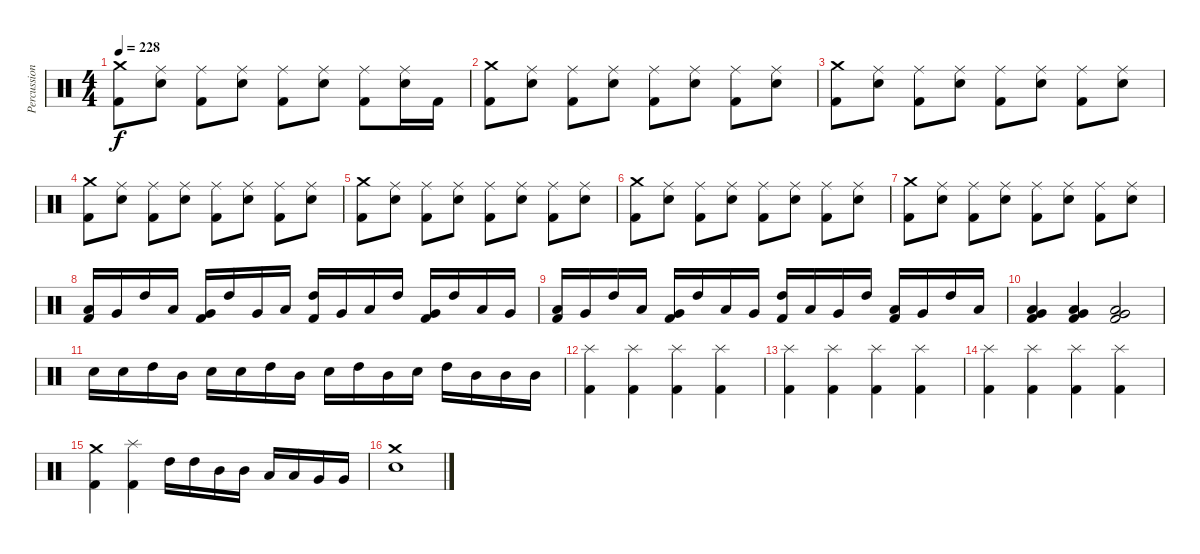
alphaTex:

\track ("Percussion" "Percussion") {instrument percussion}
\staff {score}
\articulation defaults
\ts (4 4)
\tempo 228
\clef neutral
\ks c
("Crash medium (hit)" "Kick (hit) 2").8{dy f} ("Ride (middle)" "Electric Snare (hit)").8 ("Ride (middle)" "Kick (hit) 2").8 ("Ride (middle)" "Electric Snare (hit)").8 ("Ride (middle)" "Kick (hit) 2").8 ("Ride (middle)" "Electric Snare (hit)").8 ("Ride (middle)" "Kick (hit) 2").8 ("Ride (middle)" "Electric Snare (hit)").16 "Kick (hit) 2".16 |
("Crash medium (hit)" "Kick (hit) 2").8 ("Ride (middle)" "Electric Snare (hit)").8 ("Ride (middle)" "Kick (hit) 2").8 ("Ride (middle)" "Electric Snare (hit)").8 ("Ride (middle)" "Kick (hit) 2").8 ("Ride (middle)" "Electric Snare (hit)").8 ("Ride (middle)" "Kick (hit) 2").8 ("Ride (middle)" "Electric Snare (hit)").8 |
("Crash medium (hit)" "Kick (hit) 2").8 ("Ride (middle)" "Electric Snare (hit)").8 ("Ride (middle)" "Kick (hit) 2").8 ("Ride (middle)" "Electric Snare (hit)").8 ("Ride (middle)" "Kick (hit) 2").8 ("Ride (middle)" "Electric Snare (hit)").8 ("Ride (middle)" "Kick (hit) 2").8 ("Ride (middle)" "Electric Snare (hit)").8 |
("Crash medium (hit)" "Kick (hit) 2").8 ("Ride (middle)" "Electric Snare (hit)").8 ("Ride (middle)" "Kick (hit) 2").8 ("Ride (middle)" "Electric Snare (hit)").8 ("Ride (middle)" "Kick (hit) 2").8 ("Ride (middle)" "Electric Snare (hit)").8 ("Ride (middle)" "Kick (hit) 2").8 ("Ride (middle)" "Electric Snare (hit)").8 |
("Crash medium (hit)" "Kick (hit) 2").8 ("Ride (middle)" "Electric Snare (hit)").8 ("Ride (middle)" "Kick (hit) 2").8 ("Ride (middle)" "Electric Snare (hit)").8 ("Ride (middle)" "Kick (hit) 2").8 ("Ride (middle)" "Electric Snare (hit)").8 ("Ride (middle)" "Kick (hit) 2").8 ("Ride (middle)" "Electric Snare (hit)").8 |
("Crash medium (hit)" "Kick (hit) 2").8 ("Ride (middle)" "Electric Snare (hit)").8 ("Ride (middle)" "Kick (hit) 2").8 ("Ride (middle)" "Electric Snare (hit)").8 ("Ride (middle)" "Kick (hit) 2").8 ("Ride (middle)" "Electric Snare (hit)").8 ("Ride (middle)" "Kick (hit) 2").8 ("Ride (middle)" "Electric Snare (hit)").8 |
("Crash medium (hit)" "Kick (hit) 2").8 ("Ride (middle)" "Electric Snare (hit)").8 ("Ride (middle)" "Kick (hit) 2").8 ("Ride (middle)" "Electric Snare (hit)").8 ("Ride (middle)" "Kick (hit) 2").8 ("Ride (middle)" "Electric Snare (hit)").8 ("Ride (middle)" "Kick (hit) 2").8 ("Ride (middle)" "Electric Snare (hit)").8 |
("Low Tom (hit)" "Kick (hit) 2").16 "Very Low Tom (hit)".16 "High Tom (hit)".16 "Low Tom (hit)".16 ("Very Low Tom (hit)" "Kick (hit) 2").16 "High Tom (hit)".16 "Very Low Tom (hit)".16 "Low Tom (hit)".16 ("High Tom (hit)" "Kick (hit) 2").16 "Very Low Tom (hit)".16 "Low Tom (hit)".16 "High Tom (hit)".16 ("Very Low Tom (hit)" "Kick (hit) 2").16 "High Tom (hit)".16 "Low Tom (hit)".16 "Very Low Tom (hit)".16 |
("Low Tom (hit)" "Kick (hit) 2").16 "Very Low Tom (hit)".16 "High Tom (hit)".16 "Low Tom (hit)".16 ("Very Low Tom (hit)" "Kick (hit) 2").16 "High Tom (hit)".16 "Low Tom (hit)".16 "Very Low Tom (hit)".16 ("High Tom (hit)" "Kick (hit) 2").16 "Low Tom (hit)".16 "Very Low Tom (hit)".16 "High Tom (hit)".16 ("Low Tom (hit)" "Kick (hit) 2").16 "Very Low Tom (hit)".16 "High Tom (hit)".16 "Low Tom (hit)".16 |
("Kick (hit) 2" "Low Tom (hit)" "Very Low Tom (hit)").4 ("Kick (hit) 2" "Low Tom (hit)" "Very Low Tom (hit)").4 ("Kick (hit) 2" "Low Tom (hit)" "Very Low Tom (hit)").2 |
"Electric Snare (hit)".16 "Electric Snare (hit)".16 "High Tom (hit)".16 "Mid Tom (hit)".16 "Electric Snare (hit)".16 "Electric Snare (hit)".16 "High Tom (hit)".16 "Mid Tom (hit)".16 "Electric Snare (hit)".16 "High Tom (hit)".16 "Mid Tom (hit)".16 "Electric Snare (hit)".16 "High Tom (hit)".16 "Mid Tom (hit)".16 "Mid Tom (hit)".16 "Mid Tom (hit)".16 |
("Splash (hit)" "Kick (hit) 2").4 ("Splash (hit)" "Kick (hit) 2").4 ("Splash (hit)" "Kick (hit) 2").4 ("Splash (hit)" "Kick (hit) 2").4 |
("Splash (hit)" "Kick (hit) 2").4 ("Splash (hit)" "Kick (hit) 2").4 ("Splash (hit)" "Kick (hit) 2").4 ("Splash (hit)" "Kick (hit) 2").4 |
("Splash (hit)" "Kick (hit) 2").4 ("Splash (hit)" "Kick (hit) 2").4 ("Splash (hit)" "Kick (hit) 2").4 ("Splash (hit)" "Kick (hit) 2").4 |
("Crash medium (hit)" "Kick (hit) 2").4 ("Splash (hit)" "Kick (hit) 2").4 "High Tom (hit)".16 "High Tom (hit)".16 "Mid Tom (hit)".16 "Mid Tom (hit)".16 "Low Tom (hit)".16 "Low Tom (hit)".16 "Very Low Tom (hit)".16 "Very Low Tom (hit)".16 |
("Crash medium (hit)" "Electric Snare (hit)").1
